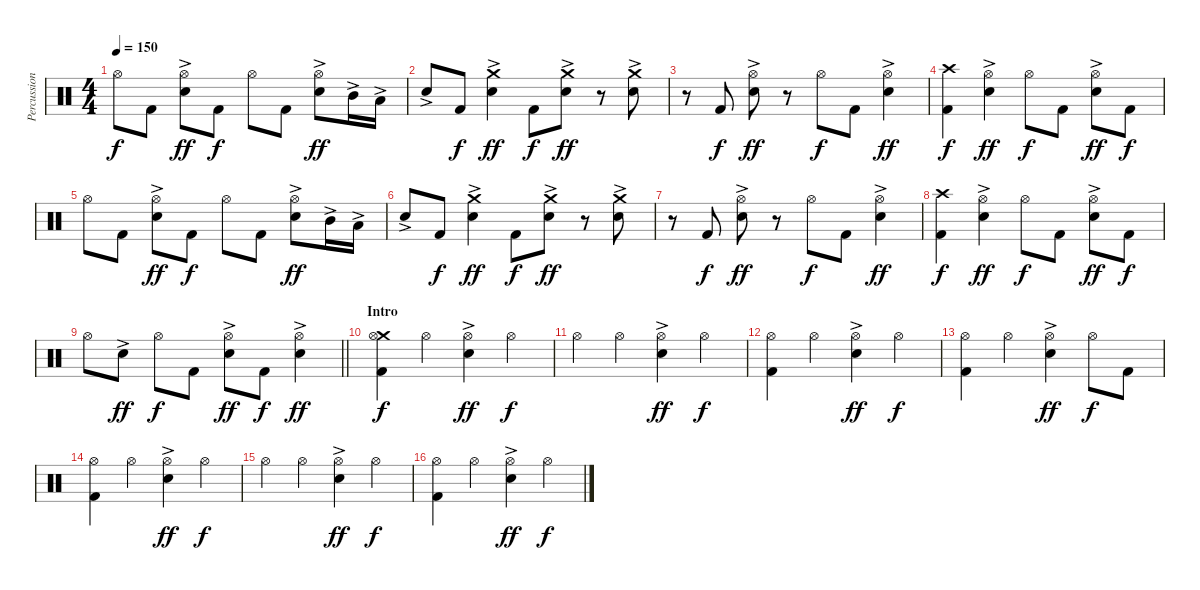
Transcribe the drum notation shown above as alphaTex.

\track ("Percussion" "Percussion") {instrument percussion}
\staff {score}
\articulation defaults
\ts (4 4)
\tempo 150
\clef neutral
\ks c "Hi-Hat (open)".8{dy f} "Kick (hit) 2".8
("Hi-Hat (open)" "Electric Snare (hit)"{ac}).8{dy ff} "Kick (hit) 2".8{dy f} "Hi-Hat (open)".8 "Kick (hit) 2".8 ("Hi-Hat (open)" "Electric Snare (hit)"{ac}).8{dy ff} "Mid Tom (hit)"{ac}.16 "Low Tom (hit)"{ac}.16 |
"Electric Snare (hit)"{ac}.8 "Kick (hit) 2".8{dy f} ("Crash medium (hit)" "Electric Snare (hit)"{ac}).4{dy ff} "Kick (hit) 2".8{dy f} ("Crash medium (hit)" "Electric Snare (hit)"{ac}).8{dy ff} r.8 ("Crash medium (hit)" "Electric Snare (hit)"{ac}).8 |
r.8 "Kick (hit) 2".8{dy f} ("Hi-Hat (open)" "Electric Snare (hit)"{ac}).8{dy ff} r.8 "Hi-Hat (open)".8{dy f} "Kick (hit) 2".8 ("Hi-Hat (open)" "Electric Snare (hit)"{ac}).4{dy ff} |
("Crash high (hit)" "Kick (hit) 2").4{dy f} ("Hi-Hat (open)" "Electric Snare (hit)"{ac}).4{dy ff} "Hi-Hat (open)".8{dy f} "Kick (hit) 2".8 ("Hi-Hat (open)" "Electric Snare (hit)"{ac}).8{dy ff} "Kick (hit) 2".8{dy f} |
"Hi-Hat (open)".8 "Kick (hit) 2".8 ("Hi-Hat (open)" "Electric Snare (hit)"{ac}).8{dy ff} "Kick (hit) 2".8{dy f} "Hi-Hat (open)".8 "Kick (hit) 2".8 ("Hi-Hat (open)" "Electric Snare (hit)"{ac}).8{dy ff} "Mid Tom (hit)"{ac}.16 "Low Tom (hit)"{ac}.16 |
"Electric Snare (hit)"{ac}.8 "Kick (hit) 2".8{dy f} ("Crash medium (hit)" "Electric Snare (hit)"{ac}).4{dy ff} "Kick (hit) 2".8{dy f} ("Crash medium (hit)" "Electric Snare (hit)"{ac}).8{dy ff} r.8 ("Crash medium (hit)" "Electric Snare (hit)"{ac}).8 |
r.8 "Kick (hit) 2".8{dy f} ("Hi-Hat (open)" "Electric Snare (hit)"{ac}).8{dy ff} r.8 "Hi-Hat (open)".8{dy f} "Kick (hit) 2".8 ("Hi-Hat (open)" "Electric Snare (hit)"{ac}).4{dy ff} |
("Crash high (hit)" "Kick (hit) 2").4{dy f} ("Hi-Hat (open)" "Electric Snare (hit)"{ac}).4{dy ff} "Hi-Hat (open)".8{dy f} "Kick (hit) 2".8 ("Hi-Hat (open)" "Electric Snare (hit)"{ac}).8{dy ff} "Kick (hit) 2".8{dy f} |
\barLineRight lightlight "Hi-Hat (open)".8 "Electric Snare (hit)"{ac}.8{dy ff} "Hi-Hat (open)".8{dy f} "Kick (hit) 2".8
("Hi-Hat (open)" "Electric Snare (hit)"{ac}).8{dy ff} "Kick (hit) 2".8{dy f} ("Hi-Hat (open)" "Electric Snare (hit)"{ac}).4{dy ff} |
\section ("" "Intro")
("Crash medium (hit)" "Hi-Hat (open)" "Kick (hit) 2").4{dy f} "Hi-Hat (open)".4 ("Hi-Hat (open)" "Electric Snare (hit)"{ac}).4{dy ff} "Hi-Hat (open)".4{dy f} |
"Hi-Hat (open)".4 "Hi-Hat (open)".4 ("Hi-Hat (open)" "Electric Snare (hit)"{ac}).4{dy ff} "Hi-Hat (open)".4{dy f} |
("Hi-Hat (open)" "Kick (hit) 2").4 "Hi-Hat (open)".4 ("Hi-Hat (open)" "Electric Snare (hit)"{ac}).4{dy ff} "Hi-Hat (open)".4{dy f} |
("Hi-Hat (open)" "Kick (hit) 2").4 "Hi-Hat (open)".4 ("Hi-Hat (open)" "Electric Snare (hit)"{ac}).4{dy ff} "Hi-Hat (open)".8{dy f} "Kick (hit) 2".8 |
("Hi-Hat (open)" "Kick (hit) 2").4 "Hi-Hat (open)".4 ("Hi-Hat (open)" "Electric Snare (hit)"{ac}).4{dy ff} "Hi-Hat (open)".4{dy f} |
"Hi-Hat (open)".4 "Hi-Hat (open)".4 ("Hi-Hat (open)" "Electric Snare (hit)"{ac}).4{dy ff} "Hi-Hat (open)".4{dy f} |
("Hi-Hat (open)" "Kick (hit) 2").4 "Hi-Hat (open)".4 ("Hi-Hat (open)" "Electric Snare (hit)"{ac}).4{dy ff} "Hi-Hat (open)".4{dy f}
